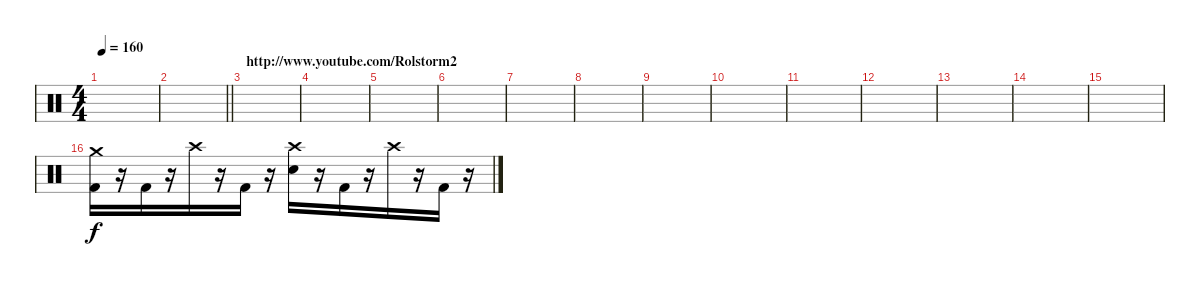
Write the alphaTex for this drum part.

\track "" {instrument percussion}
\staff {score}
\articulation defaults
\ts (4 4)
\tempo 160
\clef neutral
\ks c
|
\barLineRight lightlight
|
\section ("" "http://www.youtube.com/Rolstorm2")
|
|
|
|
|
|
|
|
|
|
|
|
|
("Crash medium (hit)" "Kick (hit) 2").16 r.16 "Kick (hit) 2".16{beam merge} r.16{beam merge} "Crash high (hit)".16 r.16 "Kick (hit) 2".16 r.16 ("Crash high (hit)" "Electric Snare (hit)").16{beam merge} r.16 "Kick (hit) 2".16{beam merge} r.16{beam merge} "Crash high (hit)".16 r.16{beam merge} "Kick (hit) 2".16 r.16
